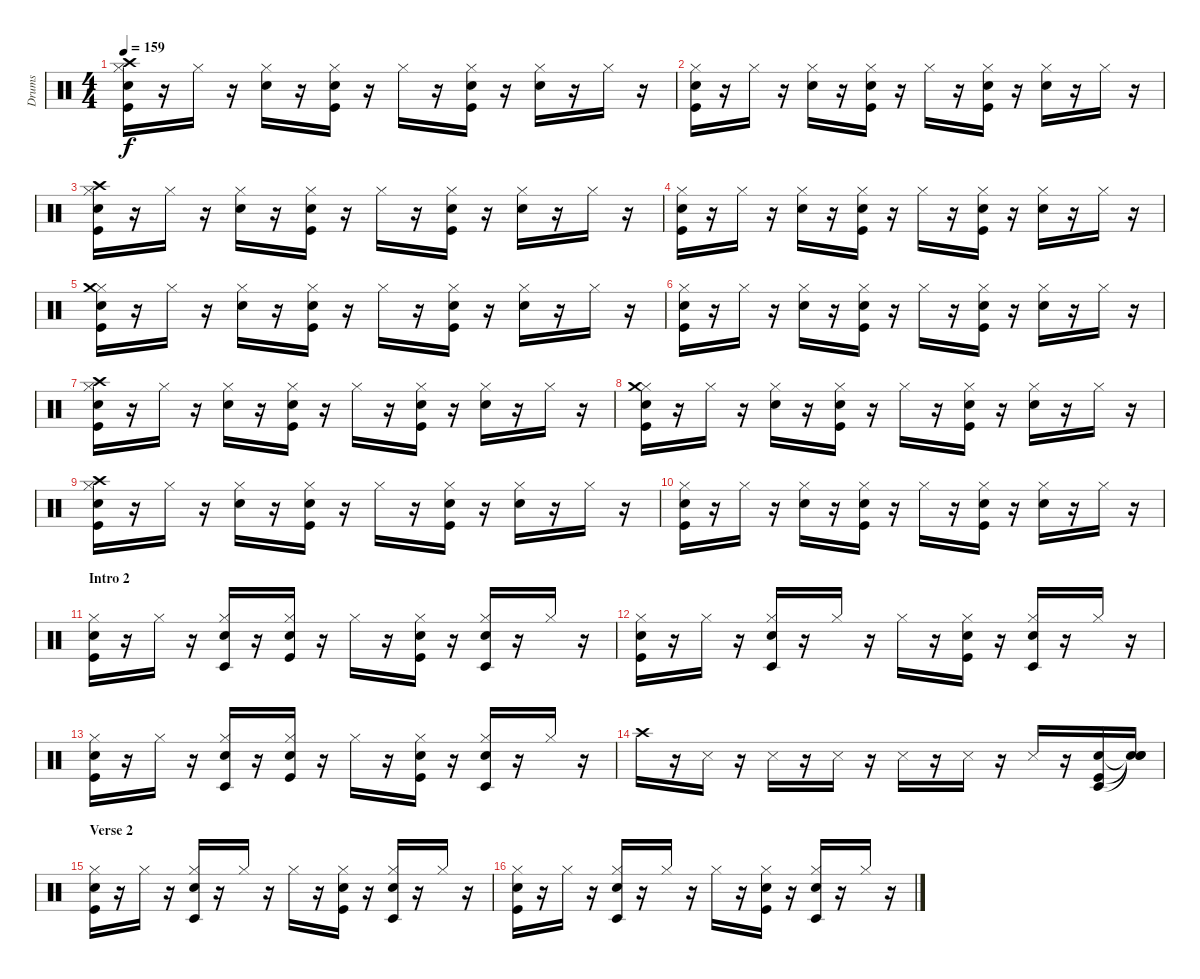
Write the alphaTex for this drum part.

\track ("Drums" "Drums") {instrument percussion}
\staff {score}
\articulation defaults
\ts (4 4)
\tempo 159
\clef neutral
\ks c
("Hi-Hat (closed)" "Crash high (hit)" "Snare (hit) 2" "Kick (hit)").16{dy f} r.16 "Hi-Hat (closed)".16 r.16 ("Hi-Hat (closed)" "Snare (hit) 2").16 r.16 ("Hi-Hat (closed)" "Snare (hit) 2" "Kick (hit)").16 r.16 "Hi-Hat (closed)".16 r.16 ("Hi-Hat (closed)" "Snare (hit) 2" "Kick (hit)").16 r.16 ("Hi-Hat (closed)" "Snare (hit) 2").16 r.16 "Hi-Hat (closed)".16 r.16 |
("Hi-Hat (closed)" "Snare (hit) 2" "Kick (hit)").16 r.16 "Hi-Hat (closed)".16 r.16 ("Hi-Hat (closed)" "Snare (hit) 2").16 r.16 ("Hi-Hat (closed)" "Snare (hit) 2" "Kick (hit)").16 r.16 "Hi-Hat (closed)".16 r.16 ("Hi-Hat (closed)" "Snare (hit) 2" "Kick (hit)").16 r.16 ("Hi-Hat (closed)" "Snare (hit) 2").16 r.16 "Hi-Hat (closed)".16 r.16 |
("Hi-Hat (closed)" "Crash high (hit)" "Snare (hit) 2" "Kick (hit)").16 r.16 "Hi-Hat (closed)".16 r.16 ("Hi-Hat (closed)" "Snare (hit) 2").16 r.16 ("Hi-Hat (closed)" "Snare (hit) 2" "Kick (hit)").16 r.16 "Hi-Hat (closed)".16 r.16 ("Hi-Hat (closed)" "Snare (hit) 2" "Kick (hit)").16 r.16 ("Hi-Hat (closed)" "Snare (hit) 2").16 r.16 "Hi-Hat (closed)".16 r.16 |
("Hi-Hat (closed)" "Snare (hit) 2" "Kick (hit)").16 r.16 "Hi-Hat (closed)".16 r.16 ("Hi-Hat (closed)" "Snare (hit) 2").16 r.16 ("Hi-Hat (closed)" "Snare (hit) 2" "Kick (hit)").16 r.16 "Hi-Hat (closed)".16 r.16 ("Hi-Hat (closed)" "Snare (hit) 2" "Kick (hit)").16 r.16 ("Hi-Hat (closed)" "Snare (hit) 2").16 r.16 "Hi-Hat (closed)".16 r.16 |
("Hi-Hat (closed)" "Crash medium (hit)" "Snare (hit) 2" "Kick (hit)").16 r.16 "Hi-Hat (closed)".16 r.16 ("Hi-Hat (closed)" "Snare (hit) 2").16 r.16 ("Hi-Hat (closed)" "Snare (hit) 2" "Kick (hit)").16 r.16 "Hi-Hat (closed)".16 r.16 ("Hi-Hat (closed)" "Snare (hit) 2" "Kick (hit)").16 r.16 ("Hi-Hat (closed)" "Snare (hit) 2").16 r.16 "Hi-Hat (closed)".16 r.16 |
("Hi-Hat (closed)" "Snare (hit) 2" "Kick (hit)").16 r.16 "Hi-Hat (closed)".16 r.16 ("Hi-Hat (closed)" "Snare (hit) 2").16 r.16 ("Hi-Hat (closed)" "Snare (hit) 2" "Kick (hit)").16 r.16 "Hi-Hat (closed)".16 r.16 ("Hi-Hat (closed)" "Snare (hit) 2" "Kick (hit)").16 r.16 ("Hi-Hat (closed)" "Snare (hit) 2").16 r.16 "Hi-Hat (closed)".16 r.16 |
("Hi-Hat (closed)" "Crash high (hit)" "Snare (hit) 2" "Kick (hit)").16 r.16 "Hi-Hat (closed)".16 r.16 ("Hi-Hat (closed)" "Snare (hit) 2").16 r.16 ("Hi-Hat (closed)" "Snare (hit) 2" "Kick (hit)").16 r.16 "Hi-Hat (closed)".16 r.16 ("Hi-Hat (closed)" "Snare (hit) 2" "Kick (hit)").16 r.16 ("Hi-Hat (closed)" "Snare (hit) 2").16 r.16 "Hi-Hat (closed)".16 r.16 |
("Hi-Hat (closed)" "Crash medium (hit)" "Snare (hit) 2" "Kick (hit)").16 r.16 "Hi-Hat (closed)".16 r.16 ("Hi-Hat (closed)" "Snare (hit) 2").16 r.16 ("Hi-Hat (closed)" "Snare (hit) 2" "Kick (hit)").16 r.16 "Hi-Hat (closed)".16 r.16 ("Hi-Hat (closed)" "Snare (hit) 2" "Kick (hit)").16 r.16 ("Hi-Hat (closed)" "Snare (hit) 2").16 r.16 "Hi-Hat (closed)".16 r.16 |
("Hi-Hat (closed)" "Crash high (hit)" "Snare (hit) 2" "Kick (hit)").16 r.16 "Hi-Hat (closed)".16 r.16 ("Hi-Hat (closed)" "Snare (hit) 2").16 r.16 ("Hi-Hat (closed)" "Snare (hit) 2" "Kick (hit)").16 r.16 "Hi-Hat (closed)".16 r.16 ("Hi-Hat (closed)" "Snare (hit) 2" "Kick (hit)").16 r.16 ("Hi-Hat (closed)" "Snare (hit) 2").16 r.16 "Hi-Hat (closed)".16 r.16 |
("Hi-Hat (closed)" "Snare (hit) 2" "Kick (hit)").16 r.16 "Hi-Hat (closed)".16 r.16 ("Hi-Hat (closed)" "Snare (hit) 2").16 r.16 ("Hi-Hat (closed)" "Snare (hit) 2" "Kick (hit)").16 r.16 "Hi-Hat (closed)".16 r.16 ("Hi-Hat (closed)" "Snare (hit) 2" "Kick (hit)").16 r.16 ("Hi-Hat (closed)" "Snare (hit) 2").16 r.16 "Hi-Hat (closed)".16 r.16 |
\section ("" "Intro 2")
("Hi-Hat (closed)" "Snare (hit) 2" "Kick (hit)").16 r.16 "Hi-Hat (closed)".16 r.16 ("Hi-Hat (closed)" "Timbale low (hit)" "Snare (hit) 2").16 r.16 ("Hi-Hat (closed)" "Snare (hit) 2" "Kick (hit)").16 r.16 "Hi-Hat (closed)".16 r.16 ("Hi-Hat (closed)" "Snare (hit) 2" "Kick (hit)").16 r.16 ("Hi-Hat (closed)" "Timbale low (hit)" "Snare (hit) 2").16 r.16 "Hi-Hat (closed)".16 r.16 |
("Hi-Hat (closed)" "Snare (hit) 2" "Kick (hit)").16 r.16 "Hi-Hat (closed)".16 r.16 ("Hi-Hat (closed)" "Timbale low (hit)" "Snare (hit) 2").16 r.16 "Hi-Hat (closed)".16 r.16 "Hi-Hat (closed)".16 r.16 ("Hi-Hat (closed)" "Snare (hit) 2" "Kick (hit)").16 r.16 ("Hi-Hat (closed)" "Timbale low (hit)" "Snare (hit) 2").16 r.16 "Hi-Hat (closed)".16 r.16 |
("Hi-Hat (closed)" "Snare (hit) 2" "Kick (hit)").16 r.16 "Hi-Hat (closed)".16 r.16 ("Hi-Hat (closed)" "Timbale low (hit)" "Snare (hit) 2").16 r.16 ("Hi-Hat (closed)" "Snare (hit) 2" "Kick (hit)").16 r.16 "Hi-Hat (closed)".16 r.16 ("Hi-Hat (closed)" "Snare (hit) 2" "Kick (hit)").16 r.16 ("Hi-Hat (closed)" "Timbale low (hit)" "Snare (hit) 2").16 r.16 "Hi-Hat (closed)".16 r.16 |
"Crash high (hit)".16 r.16 "Snare (side stick) 3".16 r.16 "Snare (side stick) 3".16 r.16 "Snare (side stick) 3".16 r.16 "Snare (side stick) 3".16 r.16 "Snare (side stick) 3".16 r.16 "Snare (side stick) 3".16 r.16 ("Snare (hit) 2" "Timbale low (hit)" "Kick (hit)").16 ("Snare (hit)"{t} "Snare (hit)"{t} "Snare (hit)"{t}).16 |
\section ("" "Verse 2")
("Hi-Hat (closed)" "Snare (hit) 2" "Kick (hit)").16 r.16 "Hi-Hat (closed)".16 r.16 ("Hi-Hat (closed)" "Timbale low (hit)" "Snare (hit) 2").16 r.16 "Hi-Hat (closed)".16 r.16 "Hi-Hat (closed)".16 r.16 ("Hi-Hat (closed)" "Snare (hit) 2" "Kick (hit)").16 r.16 ("Hi-Hat (closed)" "Timbale low (hit)" "Snare (hit) 2").16 r.16 "Hi-Hat (closed)".16 r.16 |
("Hi-Hat (closed)" "Snare (hit) 2" "Kick (hit)").16 r.16 "Hi-Hat (closed)".16 r.16 ("Hi-Hat (closed)" "Timbale low (hit)" "Snare (hit) 2").16 r.16 "Hi-Hat (closed)".16 r.16 "Hi-Hat (closed)".16 r.16 ("Hi-Hat (closed)" "Snare (hit) 2" "Kick (hit)").16 r.16 ("Hi-Hat (closed)" "Timbale low (hit)" "Snare (hit) 2").16 r.16 "Hi-Hat (closed)".16 r.16
